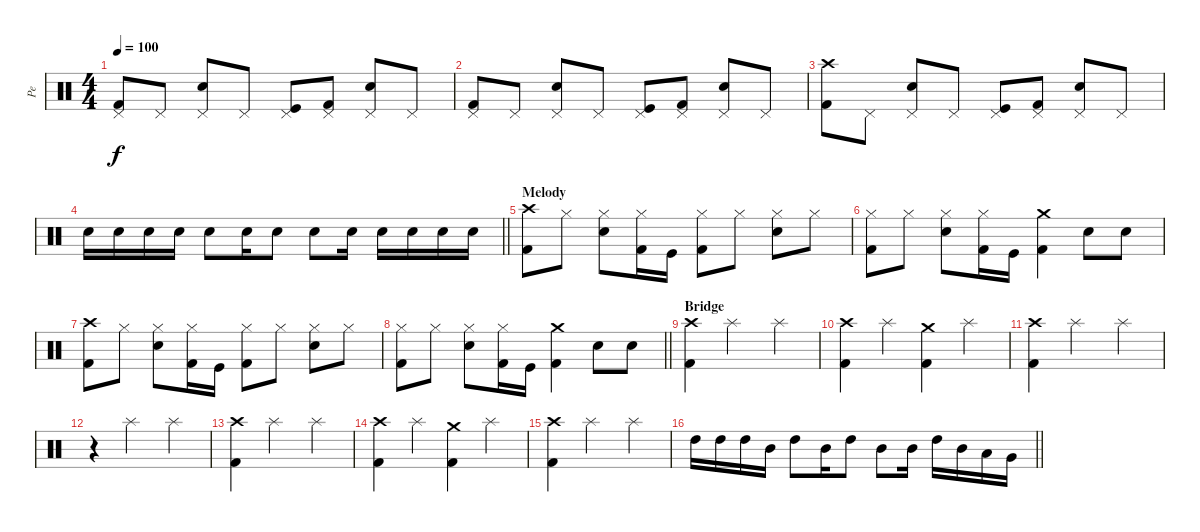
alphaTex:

\track ("Pe" "Pe") {instrument percussion}
\staff {score}
\articulation defaults
\ts (4 4)
\tempo 100
\clef neutral
\ks c
("Kick (hit) 2" "Pedal Hi-Hat (hit)").8{dy f} "Pedal Hi-Hat (hit)".8 ("Electric Snare (hit)" "Pedal Hi-Hat (hit)").8 "Pedal Hi-Hat (hit)".8 ("Kick (hit)" "Pedal Hi-Hat (hit)").8 ("Kick (hit) 2" "Pedal Hi-Hat (hit)").8 ("Electric Snare (hit)" "Pedal Hi-Hat (hit)").8 "Pedal Hi-Hat (hit)".8 |
("Kick (hit) 2" "Pedal Hi-Hat (hit)").8 "Pedal Hi-Hat (hit)".8 ("Electric Snare (hit)" "Pedal Hi-Hat (hit)").8 "Pedal Hi-Hat (hit)".8 ("Kick (hit)" "Pedal Hi-Hat (hit)").8 ("Kick (hit) 2" "Pedal Hi-Hat (hit)").8 ("Electric Snare (hit)" "Pedal Hi-Hat (hit)").8 "Pedal Hi-Hat (hit)".8 |
("Kick (hit) 2" "Crash high (hit)").8 "Pedal Hi-Hat (hit)".8 ("Electric Snare (hit)" "Pedal Hi-Hat (hit)").8 "Pedal Hi-Hat (hit)".8 ("Kick (hit)" "Pedal Hi-Hat (hit)").8 ("Kick (hit) 2" "Pedal Hi-Hat (hit)").8 ("Electric Snare (hit)" "Pedal Hi-Hat (hit)").8 "Pedal Hi-Hat (hit)".8 |
\barLineRight lightlight "Electric Snare (hit)".16 "Electric Snare (hit)".16 "Electric Snare (hit)".16 "Electric Snare (hit)".16 "Electric Snare (hit)".8 "Electric Snare (hit)".16 "Electric Snare (hit)".8 "Electric Snare (hit)".8 "Electric Snare (hit)".16 "Electric Snare (hit)".16 "Electric Snare (hit)".16 "Electric Snare (hit)".16 "Electric Snare (hit)".16
|
\section ("" "Melody")
("Kick (hit) 2" "Crash high (hit)").8 "Hi-Hat (closed)".8 ("Electric Snare (hit)" "Hi-Hat (closed)").8 ("Kick (hit) 2" "Hi-Hat (closed)").16 "Kick (hit)".16 ("Kick (hit) 2" "Hi-Hat (closed)").8 "Hi-Hat (closed)".8 ("Electric Snare (hit)" "Hi-Hat (closed)").8 "Hi-Hat (closed)".8 |
("Kick (hit) 2" "Hi-Hat (closed)").8 "Hi-Hat (closed)".8 ("Electric Snare (hit)" "Hi-Hat (closed)").8 ("Kick (hit) 2" "Hi-Hat (closed)").16 "Kick (hit)".16 ("Kick (hit) 2" "Crash medium (hit)").4 "Electric Snare (hit)".8 "Electric Snare (hit)".8 |
("Kick (hit) 2" "Crash high (hit)").8 "Hi-Hat (closed)".8 ("Electric Snare (hit)" "Hi-Hat (closed)").8 ("Kick (hit) 2" "Hi-Hat (closed)").16 "Kick (hit)".16 ("Kick (hit) 2" "Hi-Hat (closed)").8 "Hi-Hat (closed)".8 ("Electric Snare (hit)" "Hi-Hat (closed)").8 "Hi-Hat (closed)".8 |
\barLineRight lightlight
("Kick (hit) 2" "Hi-Hat (closed)").8 "Hi-Hat (closed)".8 ("Electric Snare (hit)" "Hi-Hat (closed)").8 ("Kick (hit) 2" "Hi-Hat (closed)").16 "Kick (hit)".16 ("Kick (hit) 2" "Crash medium (hit)").4 "Electric Snare (hit)".8 "Electric Snare (hit)".8 |
\section ("" "Bridge")
("Kick (hit) 2" "Crash high (hit)").4 "Splash (hit)".2 "Splash (hit)".4 |
("Kick (hit) 2" "Crash high (hit)").4 "Splash (hit)".4 ("Kick (hit) 2" "Crash medium (hit)").4 "Splash (hit)".4 |
("Kick (hit) 2" "Crash high (hit)").4 "Splash (hit)".2 "Splash (hit)".4 |
r.4 "Splash (hit)".2 "Splash (hit)".4 |
("Kick (hit) 2" "Crash high (hit)").4 "Splash (hit)".2 "Splash (hit)".4 |
("Kick (hit) 2" "Crash high (hit)").4 "Splash (hit)".4 ("Kick (hit) 2" "Crash medium (hit)").4 "Splash (hit)".4 |
("Kick (hit) 2" "Crash high (hit)").4 "Splash (hit)".2 "Splash (hit)".4 |
\barLineRight lightlight "High Tom (hit)".16 "High Tom (hit)".16 "High Tom (hit)".16 "Mid Tom (hit)".16 "High Tom (hit)".8 "Mid Tom (hit)".16 "High Tom (hit)".8 "Mid Tom (hit)".8 "Mid Tom (hit)".16 "High Tom (hit)".16 "Mid Tom (hit)".16 "Low Tom (hit)".16 "Very Low Tom (hit)".16
